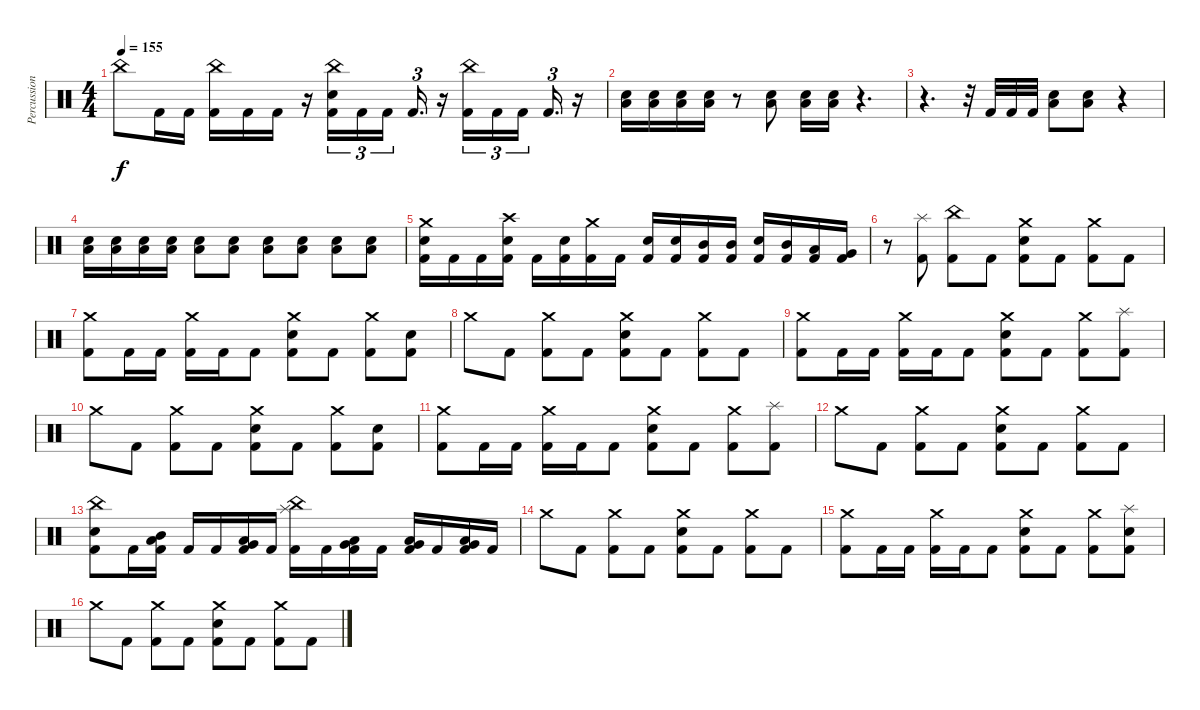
\track ("Percussion" "Percussion") {instrument percussion}
\staff {score}
\articulation defaults
\ts (4 4)
\tempo 155
\clef neutral
\ks c "China (hit)".8{dy f} "Kick (hit) 2".16 "Kick (hit) 2".16
("China (hit)" "Kick (hit) 2").16 "Kick (hit) 2".16 "Kick (hit) 2".16 r.16 ("China (hit)" "Electric Snare (hit)" "Kick (hit) 2").16{tu (3 2)} "Kick (hit) 2".16{tu (3 2)} "Kick (hit) 2".16{tu (3 2) beam splitsecondary} "Kick (hit) 2".16{d tu (3 2)} r.16 ("China (hit)" "Kick (hit) 2").16{tu (3 2)} "Kick (hit) 2".16{tu (3 2)} "Kick (hit) 2".16{tu (3 2) beam splitsecondary} "Kick (hit) 2".16{d tu (3 2)} r.16 |
("Electric Snare (hit)" "Low Floor Tom (hit)").16 ("Electric Snare (hit)" "Low Floor Tom (hit)").16 ("Electric Snare (hit)" "Low Floor Tom (hit)").16 ("Electric Snare (hit)" "Low Floor Tom (hit)").16 r.8 ("Electric Snare (hit)" "Low Floor Tom (hit)").8 ("Electric Snare (hit)" "Low Floor Tom (hit)").16 ("Electric Snare (hit)" "Low Floor Tom (hit)").16 r.4{d} |
r.4{d} r.32 "Kick (hit) 2".32 "Kick (hit) 2".32 "Kick (hit) 2".32 ("Electric Snare (hit)" "Low Floor Tom (hit)").8 ("Electric Snare (hit)" "Low Floor Tom (hit)").8 r.4 |
("Electric Snare (hit)" "Low Floor Tom (hit)").16 ("Electric Snare (hit)" "Low Floor Tom (hit)").16 ("Electric Snare (hit)" "Low Floor Tom (hit)").16 ("Electric Snare (hit)" "Low Floor Tom (hit)").16 ("Electric Snare (hit)" "Low Floor Tom (hit)").8 ("Electric Snare (hit)" "Low Floor Tom (hit)").8 ("Electric Snare (hit)" "Low Floor Tom (hit)").8 ("Electric Snare (hit)" "Low Floor Tom (hit)").8 ("Electric Snare (hit)" "Low Floor Tom (hit)").8 ("Electric Snare (hit)" "Low Floor Tom (hit)").8 |
("Electric Snare (hit)" "Crash medium (hit)" "Kick (hit) 2").16 "Kick (hit) 2".16 "Kick (hit) 2".16 ("Electric Snare (hit)" "Crash high (hit)" "Kick (hit) 2").16 "Kick (hit) 2".16 ("Electric Snare (hit)" "Kick (hit) 2").16 ("Crash medium (hit)" "Kick (hit) 2").16 "Kick (hit) 2".16 ("Electric Snare (hit)" "Kick (hit) 2").16 ("Electric Snare (hit)" "Kick (hit) 2").16 ("Mid Tom (hit)" "Kick (hit) 2").16 ("Mid Tom (hit)" "Kick (hit) 2").16 ("Electric Snare (hit)" "Kick (hit) 2").16 ("Mid Tom (hit)" "Kick (hit) 2").16 ("Low Tom (hit)" "Kick (hit) 2").16 ("Very Low Tom (hit)" "Kick (hit) 2").16 |
r.8 ("Splash (hit)" "Kick (hit) 2").8 ("China (hit)" "Kick (hit) 2").8 "Kick (hit) 2".8 ("Electric Snare (hit)" "Crash medium (hit)" "Kick (hit) 2").8 "Kick (hit) 2".8 ("Crash medium (hit)" "Kick (hit) 2").8 "Kick (hit) 2".8 |
("Crash medium (hit)" "Kick (hit) 2").8 "Kick (hit) 2".16 "Kick (hit) 2".16 ("Crash medium (hit)" "Kick (hit) 2").16 "Kick (hit) 2".16 "Kick (hit) 2".8 ("Electric Snare (hit)" "Crash medium (hit)" "Kick (hit) 2").8 "Kick (hit) 2".8 ("Crash medium (hit)" "Kick (hit) 2").8 ("Electric Snare (hit)" "Kick (hit) 2").8 |
"Crash medium (hit)".8 "Kick (hit) 2".8 ("Crash medium (hit)" "Kick (hit) 2").8 "Kick (hit) 2".8 ("Electric Snare (hit)" "Crash medium (hit)" "Kick (hit) 2").8 "Kick (hit) 2".8 ("Crash medium (hit)" "Kick (hit) 2").8 "Kick (hit) 2".8 |
("Crash medium (hit)" "Kick (hit) 2").8 "Kick (hit) 2".16 "Kick (hit) 2".16 ("Crash medium (hit)" "Kick (hit) 2").16 "Kick (hit) 2".16 "Kick (hit) 2".8 ("Electric Snare (hit)" "Crash medium (hit)" "Kick (hit) 2").8 "Kick (hit) 2".8 ("Crash medium (hit)" "Kick (hit) 2").8 ("Splash (hit)" "Kick (hit) 2").8 |
"Crash medium (hit)".8 "Kick (hit) 2".8 ("Crash medium (hit)" "Kick (hit) 2").8 "Kick (hit) 2".8 ("Electric Snare (hit)" "Crash medium (hit)" "Kick (hit) 2").8 "Kick (hit) 2".8 ("Crash medium (hit)" "Kick (hit) 2").8 ("Electric Snare (hit)" "Kick (hit) 2").8 |
("Crash medium (hit)" "Kick (hit) 2").8 "Kick (hit) 2".16 "Kick (hit) 2".16 ("Crash medium (hit)" "Kick (hit) 2").16 "Kick (hit) 2".16 "Kick (hit) 2".8 ("Electric Snare (hit)" "Crash medium (hit)" "Kick (hit) 2").8 "Kick (hit) 2".8 ("Crash medium (hit)" "Kick (hit) 2").8 ("Splash (hit)" "Kick (hit) 2").8 |
"Crash medium (hit)".8 "Kick (hit) 2".8 ("Crash medium (hit)" "Kick (hit) 2").8 "Kick (hit) 2".8 ("Electric Snare (hit)" "Crash medium (hit)" "Kick (hit) 2").8 "Kick (hit) 2".8 ("Crash medium (hit)" "Kick (hit) 2").8 "Kick (hit) 2".8 |
("Electric Snare (hit)" "China (hit)" "Kick (hit) 2").8 "Kick (hit) 2".16 ("Mid Tom (hit)" "Low Tom (hit)" "Kick (hit) 2").16 "Kick (hit) 2".16 "Kick (hit) 2".16 ("Low Tom (hit)" "Very Low Tom (hit)" "Kick (hit) 2").16 "Kick (hit) 2".16 ("Splash (hit)" "China (hit)" "Kick (hit) 2").16 "Kick (hit) 2".16 ("Low Tom (hit)" "Very Low Tom (hit)" "Kick (hit) 2").16 "Kick (hit) 2".16 ("Very Low Tom (hit)" "Low Floor Tom (hit)" "Kick (hit) 2").16 "Kick (hit) 2".16 ("Very Low Tom (hit)" "Low Floor Tom (hit)" "Kick (hit) 2").16 "Kick (hit) 2".16 |
"Crash medium (hit)".8 "Kick (hit) 2".8 ("Crash medium (hit)" "Kick (hit) 2").8 "Kick (hit) 2".8 ("Electric Snare (hit)" "Crash medium (hit)" "Kick (hit) 2").8 "Kick (hit) 2".8 ("Crash medium (hit)" "Kick (hit) 2").8 "Kick (hit) 2".8 |
("Crash medium (hit)" "Kick (hit) 2").8 "Kick (hit) 2".16 "Kick (hit) 2".16 ("Crash medium (hit)" "Kick (hit) 2").16 "Kick (hit) 2".16 "Kick (hit) 2".8 ("Electric Snare (hit)" "Crash medium (hit)" "Kick (hit) 2").8 "Kick (hit) 2".8 ("Crash medium (hit)" "Kick (hit) 2").8 ("Electric Snare (hit)" "Splash (hit)" "Kick (hit) 2").8 |
"Crash medium (hit)".8 "Kick (hit) 2".8 ("Crash medium (hit)" "Kick (hit) 2").8 "Kick (hit) 2".8 ("Electric Snare (hit)" "Crash medium (hit)" "Kick (hit) 2").8 "Kick (hit) 2".8 ("Crash medium (hit)" "Kick (hit) 2").8 "Kick (hit) 2".8
